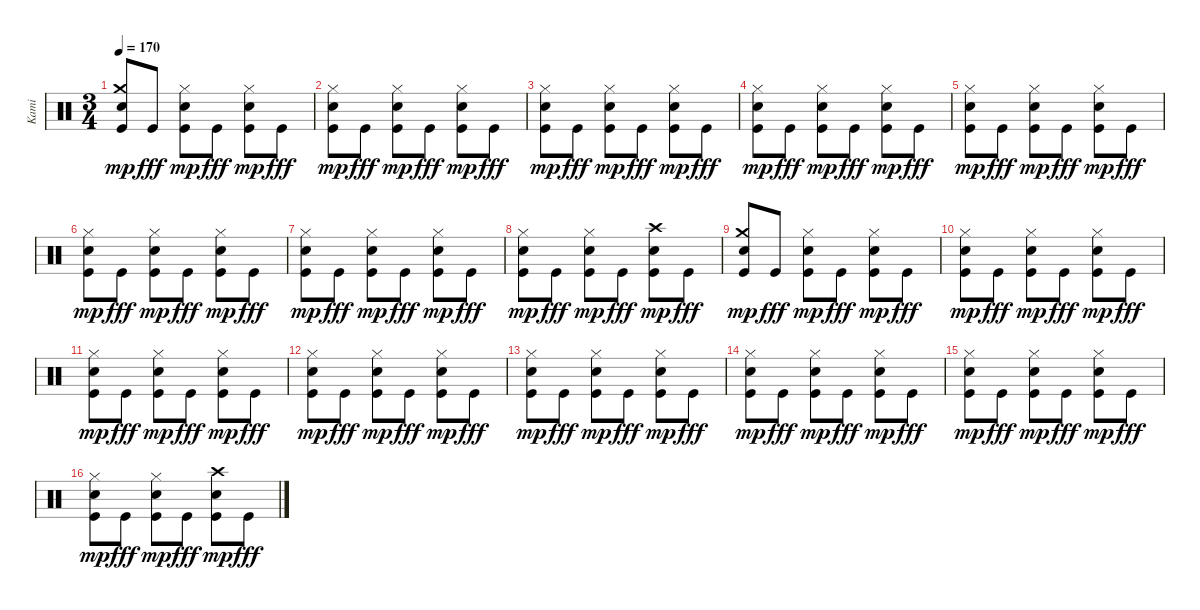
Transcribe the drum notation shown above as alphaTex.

\track ("Kami" "Kami") {instrument percussion}
\staff {score}
\articulation defaults
\ts (3 4)
\tempo 170
\clef neutral
\ks c
("Kick (hit)" "Crash medium (hit)" "Snare (hit) 2").8{dy mp} "Kick (hit)".8{dy fff} ("Kick (hit)" "Snare (hit) 2" "Hi-Hat (closed)").8{dy mp} "Kick (hit)".8{dy fff} ("Kick (hit)" "Hi-Hat (closed)" "Snare (hit) 2").8{dy mp} "Kick (hit)".8{dy fff} |
("Kick (hit)" "Hi-Hat (closed)" "Snare (hit) 2").8{dy mp} "Kick (hit)".8{dy fff} ("Kick (hit)" "Hi-Hat (closed)" "Snare (hit) 2").8{dy mp} "Kick (hit)".8{dy fff} ("Kick (hit)" "Hi-Hat (closed)" "Snare (hit) 2").8{dy mp} "Kick (hit)".8{dy fff} |
("Kick (hit)" "Hi-Hat (closed)" "Snare (hit) 2").8{dy mp} "Kick (hit)".8{dy fff} ("Kick (hit)" "Hi-Hat (closed)" "Snare (hit) 2").8{dy mp} "Kick (hit)".8{dy fff} ("Kick (hit)" "Hi-Hat (closed)" "Snare (hit) 2").8{dy mp} "Kick (hit)".8{dy fff} |
("Kick (hit)" "Hi-Hat (closed)" "Snare (hit) 2").8{dy mp} "Kick (hit)".8{dy fff} ("Kick (hit)" "Hi-Hat (closed)" "Snare (hit) 2").8{dy mp} "Kick (hit)".8{dy fff} ("Kick (hit)" "Hi-Hat (closed)" "Snare (hit) 2").8{dy mp} "Kick (hit)".8{dy fff} |
("Kick (hit)" "Hi-Hat (closed)" "Snare (hit) 2").8{dy mp} "Kick (hit)".8{dy fff} ("Kick (hit)" "Hi-Hat (closed)" "Snare (hit) 2").8{dy mp} "Kick (hit)".8{dy fff} ("Kick (hit)" "Hi-Hat (closed)" "Snare (hit) 2").8{dy mp} "Kick (hit)".8{dy fff} |
("Kick (hit)" "Hi-Hat (closed)" "Snare (hit) 2").8{dy mp} "Kick (hit)".8{dy fff} ("Kick (hit)" "Hi-Hat (closed)" "Snare (hit) 2").8{dy mp} "Kick (hit)".8{dy fff} ("Kick (hit)" "Hi-Hat (closed)" "Snare (hit) 2").8{dy mp} "Kick (hit)".8{dy fff} |
("Kick (hit)" "Hi-Hat (closed)" "Snare (hit) 2").8{dy mp} "Kick (hit)".8{dy fff} ("Kick (hit)" "Hi-Hat (closed)" "Snare (hit) 2").8{dy mp} "Kick (hit)".8{dy fff} ("Kick (hit)" "Hi-Hat (closed)" "Snare (hit) 2").8{dy mp} "Kick (hit)".8{dy fff} |
("Kick (hit)" "Hi-Hat (closed)" "Snare (hit) 2").8{dy mp} "Kick (hit)".8{dy fff} ("Kick (hit)" "Hi-Hat (closed)" "Snare (hit) 2").8{dy mp} "Kick (hit)".8{dy fff} ("Kick (hit)" "Crash high (hit)" "Snare (hit) 2").8{dy mp} "Kick (hit)".8{dy fff} |
("Kick (hit)" "Crash medium (hit)" "Snare (hit) 2").8{dy mp} "Kick (hit)".8{dy fff} ("Kick (hit)" "Snare (hit) 2" "Hi-Hat (closed)").8{dy mp} "Kick (hit)".8{dy fff} ("Kick (hit)" "Hi-Hat (closed)" "Snare (hit) 2").8{dy mp} "Kick (hit)".8{dy fff} |
("Kick (hit)" "Hi-Hat (closed)" "Snare (hit) 2").8{dy mp} "Kick (hit)".8{dy fff} ("Kick (hit)" "Hi-Hat (closed)" "Snare (hit) 2").8{dy mp} "Kick (hit)".8{dy fff} ("Kick (hit)" "Hi-Hat (closed)" "Snare (hit) 2").8{dy mp} "Kick (hit)".8{dy fff} |
("Kick (hit)" "Hi-Hat (closed)" "Snare (hit) 2").8{dy mp} "Kick (hit)".8{dy fff} ("Kick (hit)" "Hi-Hat (closed)" "Snare (hit) 2").8{dy mp} "Kick (hit)".8{dy fff} ("Kick (hit)" "Hi-Hat (closed)" "Snare (hit) 2").8{dy mp} "Kick (hit)".8{dy fff} |
("Kick (hit)" "Hi-Hat (closed)" "Snare (hit) 2").8{dy mp} "Kick (hit)".8{dy fff} ("Kick (hit)" "Hi-Hat (closed)" "Snare (hit) 2").8{dy mp} "Kick (hit)".8{dy fff} ("Kick (hit)" "Hi-Hat (closed)" "Snare (hit) 2").8{dy mp} "Kick (hit)".8{dy fff} |
("Kick (hit)" "Hi-Hat (closed)" "Snare (hit) 2").8{dy mp} "Kick (hit)".8{dy fff} ("Kick (hit)" "Hi-Hat (closed)" "Snare (hit) 2").8{dy mp} "Kick (hit)".8{dy fff} ("Kick (hit)" "Hi-Hat (closed)" "Snare (hit) 2").8{dy mp} "Kick (hit)".8{dy fff} |
("Kick (hit)" "Hi-Hat (closed)" "Snare (hit) 2").8{dy mp} "Kick (hit)".8{dy fff} ("Kick (hit)" "Hi-Hat (closed)" "Snare (hit) 2").8{dy mp} "Kick (hit)".8{dy fff} ("Kick (hit)" "Hi-Hat (closed)" "Snare (hit) 2").8{dy mp} "Kick (hit)".8{dy fff} |
("Kick (hit)" "Hi-Hat (closed)" "Snare (hit) 2").8{dy mp} "Kick (hit)".8{dy fff} ("Kick (hit)" "Hi-Hat (closed)" "Snare (hit) 2").8{dy mp} "Kick (hit)".8{dy fff} ("Kick (hit)" "Hi-Hat (closed)" "Snare (hit) 2").8{dy mp} "Kick (hit)".8{dy fff} |
("Kick (hit)" "Hi-Hat (closed)" "Snare (hit) 2").8{dy mp} "Kick (hit)".8{dy fff} ("Kick (hit)" "Hi-Hat (closed)" "Snare (hit) 2").8{dy mp} "Kick (hit)".8{dy fff} ("Kick (hit)" "Crash high (hit)" "Snare (hit) 2").8{dy mp} "Kick (hit)".8{dy fff}
